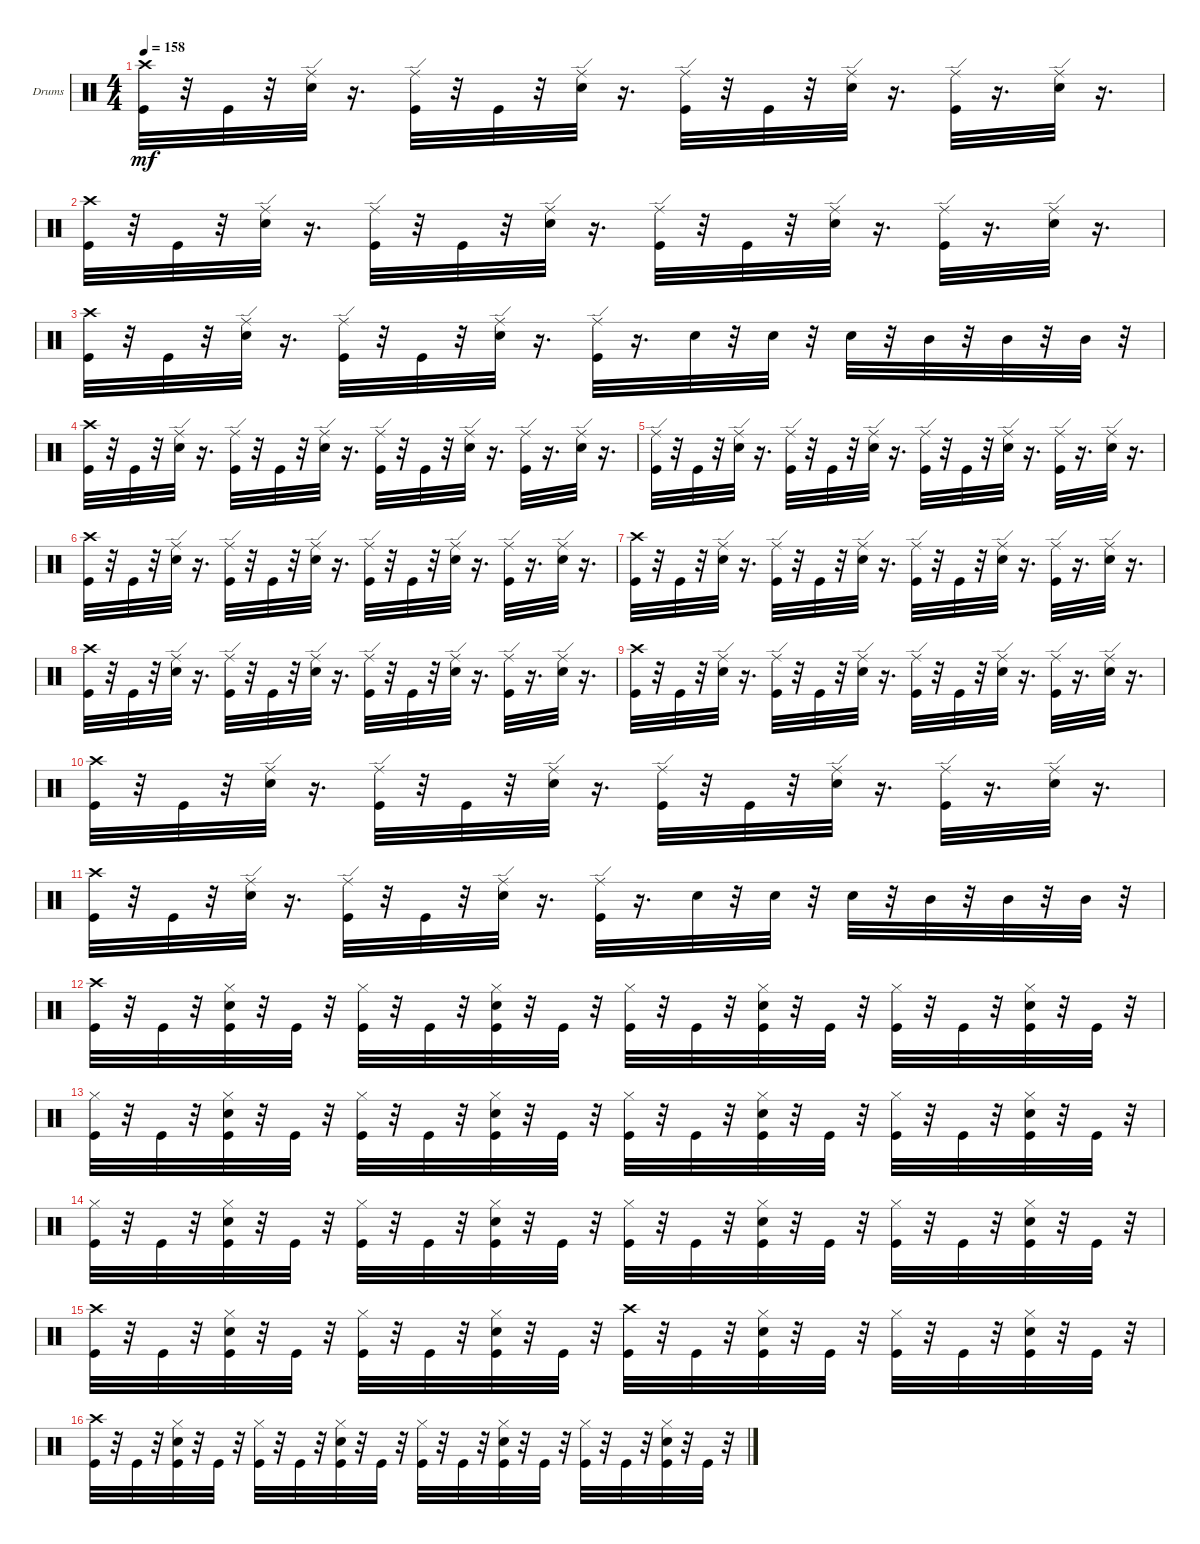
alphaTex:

\bracketExtendMode groupsimilarinstruments
\firstSystemTrackNameOrientation horizontal
\otherSystemsTrackNameOrientation horizontal
\track ("" "Drums") {instrument percussion}
\staff {score}
\articulation defaults
\ts (4 4)
\tempo 158
\clef neutral
\ks c
("Crash high (hit)" "Kick (hit)").32{dy mf} r.32 "Kick (hit)".32 r.32 ("Snare (hit) 2" "Ride (edge)").32 r.16{d} ("Ride (edge)" "Kick (hit)").32 r.32 "Kick (hit)".32 r.32 ("Ride (edge)" "Snare (hit) 2").32 r.16{d} ("Kick (hit)" "Ride (edge)").32 r.32 "Kick (hit)".32 r.32 ("Snare (hit) 2" "Ride (edge)").32 r.16{d} ("Kick (hit)" "Ride (edge)").32 r.16{d} ("Snare (hit) 2" "Ride (edge)").32 r.16{d} |
("Crash high (hit)" "Kick (hit)").32 r.32 "Kick (hit)".32 r.32 ("Snare (hit) 2" "Ride (edge)").32 r.16{d} ("Ride (edge)" "Kick (hit)").32 r.32 "Kick (hit)".32 r.32 ("Ride (edge)" "Snare (hit) 2").32 r.16{d} ("Kick (hit)" "Ride (edge)").32 r.32 "Kick (hit)".32 r.32 ("Snare (hit) 2" "Ride (edge)").32 r.16{d} ("Kick (hit)" "Ride (edge)").32 r.16{d} ("Snare (hit) 2" "Ride (edge)").32 r.16{d} |
("Crash high (hit)" "Kick (hit)").32 r.32 "Kick (hit)".32 r.32 ("Snare (hit) 2" "Ride (edge)").32 r.16{d} ("Ride (edge)" "Kick (hit)").32 r.32 "Kick (hit)".32 r.32 ("Ride (edge)" "Snare (hit) 2").32 r.16{d} ("Kick (hit)" "Ride (edge)").32 r.16{d} "Snare (hit) 2".32 r.32 "Snare (hit) 2".32 r.32 "Snare (hit) 2".32 r.32 "Mid Tom (hit)".32 r.32 "Mid Tom (hit)".32 r.32 "Mid Tom (hit)".32 r.32 |
("Crash high (hit)" "Kick (hit)").32 r.32 "Kick (hit)".32 r.32 ("Snare (hit) 2" "Ride (edge)").32 r.16{d} ("Ride (edge)" "Kick (hit)").32 r.32 "Kick (hit)".32 r.32 ("Ride (edge)" "Snare (hit) 2").32 r.16{d} ("Kick (hit)" "Ride (edge)").32 r.32 "Kick (hit)".32 r.32 ("Snare (hit) 2" "Ride (edge)").32 r.16{d} ("Kick (hit)" "Ride (edge)").32 r.16{d} ("Snare (hit) 2" "Ride (edge)").32 r.16{d} |
("Ride (edge)" "Kick (hit)").32 r.32 "Kick (hit)".32 r.32 ("Snare (hit) 2" "Ride (edge)").32 r.16{d} ("Ride (edge)" "Kick (hit)").32 r.32 "Kick (hit)".32 r.32 ("Ride (edge)" "Snare (hit) 2").32 r.16{d} ("Kick (hit)" "Ride (edge)").32 r.32 "Kick (hit)".32 r.32 ("Snare (hit) 2" "Ride (edge)").32 r.16{d} ("Kick (hit)" "Ride (edge)").32 r.16{d} ("Snare (hit) 2" "Ride (edge)").32 r.16{d} |
("Crash high (hit)" "Kick (hit)").32 r.32 "Kick (hit)".32 r.32 ("Snare (hit) 2" "Ride (edge)").32 r.16{d} ("Ride (edge)" "Kick (hit)").32 r.32 "Kick (hit)".32 r.32 ("Ride (edge)" "Snare (hit) 2").32 r.16{d} ("Kick (hit)" "Ride (edge)").32 r.32 "Kick (hit)".32 r.32 ("Snare (hit) 2" "Ride (edge)").32 r.16{d} ("Kick (hit)" "Ride (edge)").32 r.16{d} ("Snare (hit) 2" "Ride (edge)").32 r.16{d} |
("Crash high (hit)" "Kick (hit)").32 r.32 "Kick (hit)".32 r.32 ("Snare (hit) 2" "Ride (edge)").32 r.16{d} ("Ride (edge)" "Kick (hit)").32 r.32 "Kick (hit)".32 r.32 ("Ride (edge)" "Snare (hit) 2").32 r.16{d} ("Kick (hit)" "Ride (edge)").32 r.32 "Kick (hit)".32 r.32 ("Snare (hit) 2" "Ride (edge)").32 r.16{d} ("Kick (hit)" "Ride (edge)").32 r.16{d} ("Snare (hit) 2" "Ride (edge)").32 r.16{d} |
("Crash high (hit)" "Kick (hit)").32 r.32 "Kick (hit)".32 r.32 ("Snare (hit) 2" "Ride (edge)").32 r.16{d} ("Ride (edge)" "Kick (hit)").32 r.32 "Kick (hit)".32 r.32 ("Ride (edge)" "Snare (hit) 2").32 r.16{d} ("Kick (hit)" "Ride (edge)").32 r.32 "Kick (hit)".32 r.32 ("Snare (hit) 2" "Ride (edge)").32 r.16{d} ("Kick (hit)" "Ride (edge)").32 r.16{d} ("Snare (hit) 2" "Ride (edge)").32 r.16{d} |
("Crash high (hit)" "Kick (hit)").32 r.32 "Kick (hit)".32 r.32 ("Snare (hit) 2" "Ride (edge)").32 r.16{d} ("Ride (edge)" "Kick (hit)").32 r.32 "Kick (hit)".32 r.32 ("Ride (edge)" "Snare (hit) 2").32 r.16{d} ("Kick (hit)" "Ride (edge)").32 r.32 "Kick (hit)".32 r.32 ("Snare (hit) 2" "Ride (edge)").32 r.16{d} ("Kick (hit)" "Ride (edge)").32 r.16{d} ("Snare (hit) 2" "Ride (edge)").32 r.16{d} |
("Crash high (hit)" "Kick (hit)").32 r.32 "Kick (hit)".32 r.32 ("Snare (hit) 2" "Ride (edge)").32 r.16{d} ("Ride (edge)" "Kick (hit)").32 r.32 "Kick (hit)".32 r.32 ("Ride (edge)" "Snare (hit) 2").32 r.16{d} ("Kick (hit)" "Ride (edge)").32 r.32 "Kick (hit)".32 r.32 ("Snare (hit) 2" "Ride (edge)").32 r.16{d} ("Kick (hit)" "Ride (edge)").32 r.16{d} ("Snare (hit) 2" "Ride (edge)").32 r.16{d} |
("Crash high (hit)" "Kick (hit)").32 r.32 "Kick (hit)".32 r.32 ("Snare (hit) 2" "Ride (edge)").32 r.16{d} ("Ride (edge)" "Kick (hit)").32 r.32 "Kick (hit)".32 r.32 ("Ride (edge)" "Snare (hit) 2").32 r.16{d} ("Kick (hit)" "Ride (edge)").32 r.16{d} "Snare (hit) 2".32 r.32 "Snare (hit) 2".32 r.32 "Snare (hit) 2".32 r.32 "Mid Tom (hit)".32 r.32 "Mid Tom (hit)".32 r.32 "Mid Tom (hit)".32 r.32 |
("Crash high (hit)" "Kick (hit)").32 r.32 "Kick (hit)".32 r.32 ("Kick (hit)" "Snare (hit) 2" "Hi-Hat (closed)").32 r.32 "Kick (hit)".32 r.32 ("Kick (hit)" "Hi-Hat (closed)").32 r.32 "Kick (hit)".32 r.32 ("Kick (hit)" "Snare (hit) 2" "Hi-Hat (closed)").32 r.32 "Kick (hit)".32 r.32 ("Kick (hit)" "Hi-Hat (closed)").32 r.32 "Kick (hit)".32 r.32 ("Kick (hit)" "Snare (hit) 2" "Hi-Hat (closed)").32 r.32 "Kick (hit)".32 r.32 ("Kick (hit)" "Hi-Hat (closed)").32 r.32 "Kick (hit)".32 r.32 ("Kick (hit)" "Snare (hit) 2" "Hi-Hat (closed)").32 r.32 "Kick (hit)".32 r.32 |
("Hi-Hat (closed)" "Kick (hit)").32 r.32 "Kick (hit)".32 r.32 ("Kick (hit)" "Snare (hit) 2" "Hi-Hat (closed)").32 r.32 "Kick (hit)".32 r.32 ("Kick (hit)" "Hi-Hat (closed)").32 r.32 "Kick (hit)".32 r.32 ("Kick (hit)" "Snare (hit) 2" "Hi-Hat (closed)").32 r.32 "Kick (hit)".32 r.32 ("Kick (hit)" "Hi-Hat (closed)").32 r.32 "Kick (hit)".32 r.32 ("Kick (hit)" "Snare (hit) 2" "Hi-Hat (closed)").32 r.32 "Kick (hit)".32 r.32 ("Kick (hit)" "Hi-Hat (closed)").32 r.32 "Kick (hit)".32 r.32 ("Kick (hit)" "Snare (hit) 2" "Hi-Hat (closed)").32 r.32 "Kick (hit)".32 r.32 |
("Hi-Hat (closed)" "Kick (hit)").32 r.32 "Kick (hit)".32 r.32 ("Hi-Hat (closed)" "Kick (hit)" "Snare (hit) 2").32 r.32 "Kick (hit)".32 r.32 ("Hi-Hat (closed)" "Kick (hit)").32 r.32 "Kick (hit)".32 r.32 ("Hi-Hat (closed)" "Kick (hit)" "Snare (hit) 2").32 r.32 "Kick (hit)".32 r.32 ("Hi-Hat (closed)" "Kick (hit)").32 r.32 "Kick (hit)".32 r.32 ("Hi-Hat (closed)" "Kick (hit)" "Snare (hit) 2").32 r.32 "Kick (hit)".32 r.32 ("Hi-Hat (closed)" "Kick (hit)").32 r.32 "Kick (hit)".32 r.32 ("Hi-Hat (closed)" "Kick (hit)" "Snare (hit) 2").32 r.32 "Kick (hit)".32 r.32 |
("Crash high (hit)" "Kick (hit)").32 r.32 "Kick (hit)".32 r.32 ("Kick (hit)" "Snare (hit) 2" "Hi-Hat (closed)").32 r.32 "Kick (hit)".32 r.32 ("Kick (hit)" "Hi-Hat (closed)").32 r.32 "Kick (hit)".32 r.32 ("Kick (hit)" "Snare (hit) 2" "Hi-Hat (closed)").32 r.32 "Kick (hit)".32 r.32 ("Crash high (hit)" "Kick (hit)").32 r.32 "Kick (hit)".32 r.32 ("Kick (hit)" "Snare (hit) 2" "Hi-Hat (closed)").32 r.32 "Kick (hit)".32 r.32 ("Kick (hit)" "Hi-Hat (closed)").32 r.32 "Kick (hit)".32 r.32 ("Kick (hit)" "Snare (hit) 2" "Hi-Hat (closed)").32 r.32 "Kick (hit)".32 r.32 |
("Crash high (hit)" "Kick (hit)").32 r.32 "Kick (hit)".32 r.32 ("Kick (hit)" "Snare (hit) 2" "Hi-Hat (closed)").32 r.32 "Kick (hit)".32 r.32 ("Kick (hit)" "Hi-Hat (closed)").32 r.32 "Kick (hit)".32 r.32 ("Kick (hit)" "Snare (hit) 2" "Hi-Hat (closed)").32 r.32 "Kick (hit)".32 r.32 ("Kick (hit)" "Hi-Hat (closed)").32 r.32 "Kick (hit)".32 r.32 ("Kick (hit)" "Snare (hit) 2" "Hi-Hat (closed)").32 r.32 "Kick (hit)".32 r.32 ("Kick (hit)" "Hi-Hat (closed)").32 r.32 "Kick (hit)".32 r.32 ("Kick (hit)" "Snare (hit) 2" "Hi-Hat (closed)").32 r.32 "Kick (hit)".32 r.32
